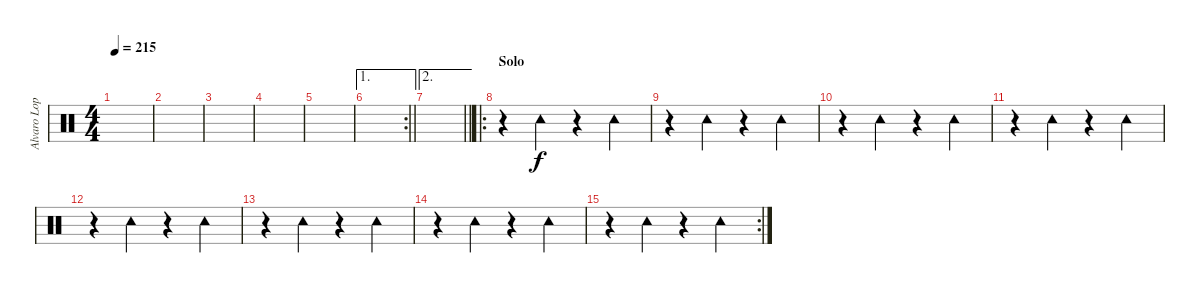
\track ("Alvaro Lopez" "Alvaro Lop") {instrument percussion}
\staff {score}
\articulation defaults
\ts (4 4)
\tempo 215
\clef neutral
\ks c
|
|
|
|
|
\ae 1
\rc 2
\barLineRight lightlight
|
\ae 2
\barLineRight lightlight
|
\ro
\section ("" "Solo")
r.4 "Tambourine (hit)".4 r.4 "Tambourine (hit)".4 |
r.4 "Tambourine (hit)".4 r.4 "Tambourine (hit)".4 |
r.4 "Tambourine (hit)".4 r.4 "Tambourine (hit)".4 |
r.4 "Tambourine (hit)".4 r.4 "Tambourine (hit)".4 |
r.4 "Tambourine (hit)".4 r.4 "Tambourine (hit)".4 |
r.4 "Tambourine (hit)".4 r.4 "Tambourine (hit)".4 |
r.4 "Tambourine (hit)".4 r.4 "Tambourine (hit)".4 |
\rc 2
r.4 "Tambourine (hit)".4 r.4 "Tambourine (hit)".4
